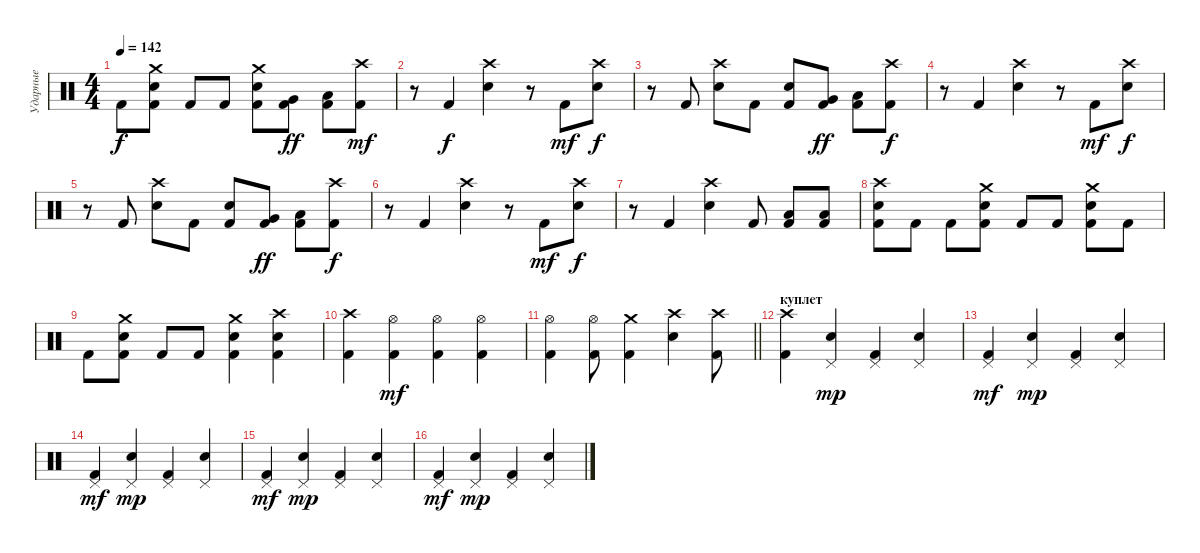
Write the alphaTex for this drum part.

\track ("Ударные" "Ударные") {instrument percussion}
\staff {score}
\articulation defaults
\ts (4 4)
\tempo 142
\clef neutral
\ks c "Kick (hit) 2".8{dy f}
("Kick (hit) 2" "Electric Snare (hit)" "Crash medium (hit)").8 "Kick (hit) 2".8 "Kick (hit) 2".8 ("Kick (hit) 2" "Electric Snare (hit)" "Crash medium (hit)").8 ("Kick (hit) 2" "Very Low Tom (hit)").8{dy ff} ("Kick (hit) 2" "Low Floor Tom (hit)").8 ("Kick (hit) 2" "Crash high (hit)").8{dy mf} |
r.8 "Kick (hit) 2".4{dy f} ("Electric Snare (hit)" "Crash high (hit)").4 r.8 "Kick (hit) 2".8{dy mf} ("Electric Snare (hit)" "Crash high (hit)").8{dy f} |
r.8 "Kick (hit) 2".8 ("Electric Snare (hit)" "Crash high (hit)").8 "Kick (hit) 2".8 ("Kick (hit) 2" "Electric Snare (hit)").8 ("Kick (hit) 2" "Very Low Tom (hit)").8{dy ff} ("Kick (hit) 2" "Low Floor Tom (hit)").8 ("Kick (hit) 2" "Crash high (hit)").8{dy f} |
r.8 "Kick (hit) 2".4 ("Electric Snare (hit)" "Crash high (hit)").4 r.8 "Kick (hit) 2".8{dy mf} ("Electric Snare (hit)" "Crash high (hit)").8{dy f} |
r.8 "Kick (hit) 2".8 ("Electric Snare (hit)" "Crash high (hit)").8 "Kick (hit) 2".8 ("Kick (hit) 2" "Electric Snare (hit)").8 ("Kick (hit) 2" "Very Low Tom (hit)").8{dy ff} ("Kick (hit) 2" "Low Floor Tom (hit)").8 ("Kick (hit) 2" "Crash high (hit)").8{dy f} |
r.8 "Kick (hit) 2".4 ("Electric Snare (hit)" "Crash high (hit)").4 r.8 "Kick (hit) 2".8{dy mf} ("Electric Snare (hit)" "Crash high (hit)").8{dy f} |
r.8 "Kick (hit) 2".4 ("Electric Snare (hit)" "Crash high (hit)").4 "Kick (hit) 2".8 ("Kick (hit) 2" "Low Floor Tom (hit)").8 ("Kick (hit) 2" "Low Floor Tom (hit)").8 |
("Kick (hit) 2" "Electric Snare (hit)" "Crash high (hit)").8 "Kick (hit) 2".8 "Kick (hit) 2".8 ("Kick (hit) 2" "Electric Snare (hit)" "Crash medium (hit)").8 "Kick (hit) 2".8 "Kick (hit) 2".8 ("Kick (hit) 2" "Electric Snare (hit)" "Crash medium (hit)").8 "Kick (hit) 2".8 |
"Kick (hit) 2".8 ("Kick (hit) 2" "Electric Snare (hit)" "Crash medium (hit)").8 "Kick (hit) 2".8 "Kick (hit) 2".8 ("Kick (hit) 2" "Electric Snare (hit)" "Crash medium (hit)").4 ("Kick (hit) 2" "Electric Snare (hit)" "Crash high (hit)").4 |
("Kick (hit) 2" "Crash high (hit)").4 ("Kick (hit) 2" "Hi-Hat (open)").4{dy mf} ("Kick (hit) 2" "Hi-Hat (open)").4 ("Kick (hit) 2" "Hi-Hat (open)").4 |
\barLineRight lightlight
("Kick (hit) 2" "Hi-Hat (open)").4 ("Kick (hit) 2" "Hi-Hat (open)").8 ("Kick (hit) 2" "Crash medium (hit)").4 ("Electric Snare (hit)" "Crash high (hit)").4 ("Kick (hit) 2" "Crash high (hit)").8 |
\section ("" "куплет")
("Kick (hit) 2" "Crash high (hit)").4 ("Electric Snare (hit)" "Pedal Hi-Hat (hit)").4{dy mp} ("Kick (hit) 2" "Pedal Hi-Hat (hit)").4 ("Electric Snare (hit)" "Pedal Hi-Hat (hit)").4 |
("Kick (hit) 2" "Pedal Hi-Hat (hit)").4{dy mf} ("Electric Snare (hit)" "Pedal Hi-Hat (hit)").4{dy mp} ("Kick (hit) 2" "Pedal Hi-Hat (hit)").4 ("Electric Snare (hit)" "Pedal Hi-Hat (hit)").4 |
("Kick (hit) 2" "Pedal Hi-Hat (hit)").4{dy mf} ("Electric Snare (hit)" "Pedal Hi-Hat (hit)").4{dy mp} ("Kick (hit) 2" "Pedal Hi-Hat (hit)").4 ("Electric Snare (hit)" "Pedal Hi-Hat (hit)").4 |
("Kick (hit) 2" "Pedal Hi-Hat (hit)").4{dy mf} ("Electric Snare (hit)" "Pedal Hi-Hat (hit)").4{dy mp} ("Kick (hit) 2" "Pedal Hi-Hat (hit)").4 ("Electric Snare (hit)" "Pedal Hi-Hat (hit)").4 |
("Kick (hit) 2" "Pedal Hi-Hat (hit)").4{dy mf} ("Electric Snare (hit)" "Pedal Hi-Hat (hit)").4{dy mp} ("Kick (hit) 2" "Pedal Hi-Hat (hit)").4 ("Electric Snare (hit)" "Pedal Hi-Hat (hit)").4
